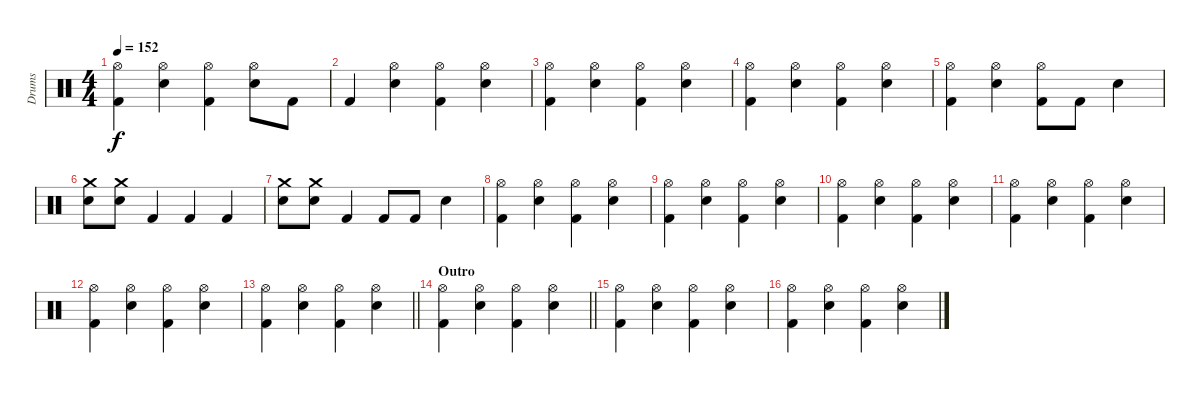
\track ("Drums" "Drums") {instrument percussion}
\staff {score}
\articulation defaults
\ts (4 4)
\tempo 152
\clef neutral
\ks c
("Hi-Hat (open)" "Kick (hit) 2").4{dy f} ("Hi-Hat (open)" "Electric Snare (hit)").4 ("Hi-Hat (open)" "Kick (hit) 2").4 ("Hi-Hat (open)" "Electric Snare (hit)").8 "Kick (hit) 2".8 |
"Kick (hit) 2".4 ("Hi-Hat (open)" "Electric Snare (hit)").4 ("Hi-Hat (open)" "Kick (hit) 2").4 ("Hi-Hat (open)" "Electric Snare (hit)").4 |
("Hi-Hat (open)" "Kick (hit) 2").4 ("Hi-Hat (open)" "Electric Snare (hit)").4 ("Hi-Hat (open)" "Kick (hit) 2").4 ("Hi-Hat (open)" "Electric Snare (hit)").4 |
("Hi-Hat (open)" "Kick (hit) 2").4 ("Hi-Hat (open)" "Electric Snare (hit)").4 ("Hi-Hat (open)" "Kick (hit) 2").4 ("Hi-Hat (open)" "Electric Snare (hit)").4 |
("Hi-Hat (open)" "Kick (hit) 2").4 ("Hi-Hat (open)" "Electric Snare (hit)").4 ("Hi-Hat (open)" "Kick (hit) 2").8 "Kick (hit) 2".8 "Electric Snare (hit)".4 |
("Crash medium (hit)" "Electric Snare (hit)").8 ("Crash medium (hit)" "Electric Snare (hit)").8 "Kick (hit) 2".4 "Kick (hit) 2".4 "Kick (hit) 2".4 |
("Crash medium (hit)" "Electric Snare (hit)").8 ("Crash medium (hit)" "Electric Snare (hit)").8 "Kick (hit) 2".4 "Kick (hit) 2".8 "Kick (hit) 2".8 "Electric Snare (hit)".4 |
("Hi-Hat (open)" "Kick (hit) 2").4 ("Hi-Hat (open)" "Electric Snare (hit)").4 ("Hi-Hat (open)" "Kick (hit) 2").4 ("Hi-Hat (open)" "Electric Snare (hit)").4 |
("Hi-Hat (open)" "Kick (hit) 2").4 ("Hi-Hat (open)" "Electric Snare (hit)").4 ("Hi-Hat (open)" "Kick (hit) 2").4 ("Hi-Hat (open)" "Electric Snare (hit)").4 |
("Hi-Hat (open)" "Kick (hit) 2").4 ("Hi-Hat (open)" "Electric Snare (hit)").4 ("Hi-Hat (open)" "Kick (hit) 2").4 ("Hi-Hat (open)" "Electric Snare (hit)").4 |
("Hi-Hat (open)" "Kick (hit) 2").4 ("Hi-Hat (open)" "Electric Snare (hit)").4 ("Hi-Hat (open)" "Kick (hit) 2").4 ("Hi-Hat (open)" "Electric Snare (hit)").4 |
("Hi-Hat (open)" "Kick (hit) 2").4 ("Hi-Hat (open)" "Electric Snare (hit)").4 ("Hi-Hat (open)" "Kick (hit) 2").4 ("Hi-Hat (open)" "Electric Snare (hit)").4 |
\barLineRight lightlight
("Hi-Hat (open)" "Kick (hit) 2").4 ("Hi-Hat (open)" "Electric Snare (hit)").4 ("Hi-Hat (open)" "Kick (hit) 2").4 ("Hi-Hat (open)" "Electric Snare (hit)").4 |
\section ("" "Outro")
\barLineRight lightlight
("Hi-Hat (open)" "Kick (hit) 2").4 ("Hi-Hat (open)" "Electric Snare (hit)").4 ("Hi-Hat (open)" "Kick (hit) 2").4 ("Hi-Hat (open)" "Electric Snare (hit)").4 |
("Hi-Hat (open)" "Kick (hit) 2").4 ("Hi-Hat (open)" "Electric Snare (hit)").4 ("Hi-Hat (open)" "Kick (hit) 2").4 ("Hi-Hat (open)" "Electric Snare (hit)").4 |
("Hi-Hat (open)" "Kick (hit) 2").4 ("Hi-Hat (open)" "Electric Snare (hit)").4 ("Hi-Hat (open)" "Kick (hit) 2").4 ("Hi-Hat (open)" "Electric Snare (hit)").4
